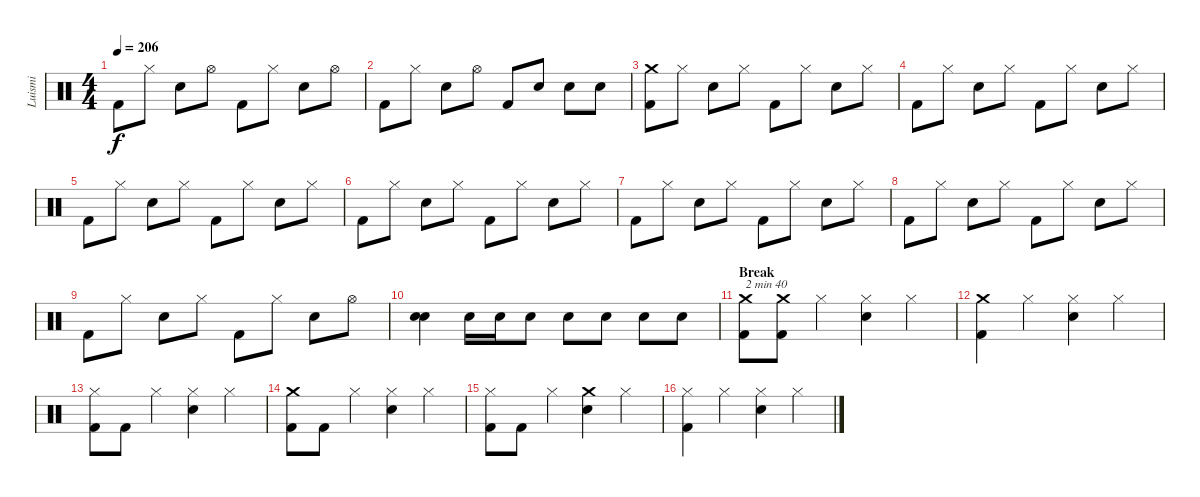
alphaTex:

\track ("Luismi" "Luismi") {instrument percussion}
\staff {score}
\articulation defaults
\ts (4 4)
\tempo 206
\clef neutral
\ks c "Kick (hit) 2".8{dy f} "Hi-Hat (closed)".8 "Snare (hit) 2".8 "Hi-Hat (open)".8 "Kick (hit) 2".8 "Hi-Hat (closed)".8 "Snare (hit) 2".8 "Hi-Hat (open)".8
|
"Kick (hit) 2".8 "Hi-Hat (closed)".8 "Snare (hit) 2".8 "Hi-Hat (open)".8 "Kick (hit) 2".8 "Snare (hit) 2".8 "Snare (hit) 2".8 "Snare (hit) 2".8 |
("Crash medium (hit)" "Kick (hit) 2").8 "Hi-Hat (closed)".8 "Snare (hit) 2".8 "Hi-Hat (closed)".8 "Kick (hit) 2".8 "Hi-Hat (closed)".8 "Snare (hit) 2".8 "Hi-Hat (closed)".8 |
"Kick (hit) 2".8 "Hi-Hat (closed)".8 "Snare (hit) 2".8 "Hi-Hat (closed)".8 "Kick (hit) 2".8 "Hi-Hat (closed)".8 "Snare (hit) 2".8 "Hi-Hat (closed)".8 |
"Kick (hit) 2".8 "Hi-Hat (closed)".8 "Snare (hit) 2".8 "Hi-Hat (closed)".8 "Kick (hit) 2".8 "Hi-Hat (closed)".8 "Snare (hit) 2".8 "Hi-Hat (closed)".8 |
"Kick (hit) 2".8 "Hi-Hat (closed)".8 "Snare (hit) 2".8 "Hi-Hat (closed)".8 "Kick (hit) 2".8 "Hi-Hat (closed)".8 "Snare (hit) 2".8 "Hi-Hat (closed)".8 |
"Kick (hit) 2".8 "Hi-Hat (closed)".8 "Snare (hit) 2".8 "Hi-Hat (closed)".8 "Kick (hit) 2".8 "Hi-Hat (closed)".8 "Snare (hit) 2".8 "Hi-Hat (closed)".8 |
"Kick (hit) 2".8 "Hi-Hat (closed)".8 "Snare (hit) 2".8 "Hi-Hat (closed)".8 "Kick (hit) 2".8 "Hi-Hat (closed)".8 "Snare (hit) 2".8 "Hi-Hat (closed)".8 |
"Kick (hit) 2".8 "Hi-Hat (closed)".8 "Snare (hit) 2".8 "Hi-Hat (closed)".8 "Kick (hit) 2".8 "Hi-Hat (closed)".8 "Snare (hit) 2".8 "Hi-Hat (open)".8 |
("Snare (hit) 2" "Snare (hit) 2").4 "Snare (hit) 2".16 "Snare (hit) 2".16 "Snare (hit) 2".8 "Snare (hit) 2".8 "Snare (hit) 2".8 "Snare (hit) 2".8 "Snare (hit) 2".8 |
\section ("" "Break")
("Crash medium (hit)" "Kick (hit) 2").8{txt "2 min 40"} ("Crash medium (hit)" "Kick (hit) 2").8 "Hi-Hat (closed)".4 ("Hi-Hat (closed)" "Snare (hit) 2").4 "Hi-Hat (closed)".4 |
("Crash medium (hit)" "Kick (hit) 2").4 "Hi-Hat (closed)".4 ("Hi-Hat (closed)" "Snare (hit) 2").4 "Hi-Hat (closed)".4 |
("Hi-Hat (closed)" "Kick (hit) 2").8 "Kick (hit) 2".8 "Hi-Hat (closed)".4 ("Hi-Hat (closed)" "Snare (hit) 2").4 "Hi-Hat (closed)".4 |
("Crash medium (hit)" "Kick (hit) 2").8 "Kick (hit) 2".8 "Hi-Hat (closed)".4 ("Hi-Hat (closed)" "Snare (hit) 2").4 "Hi-Hat (closed)".4 |
("Hi-Hat (closed)" "Kick (hit) 2").8 "Kick (hit) 2".8 "Hi-Hat (closed)".4 ("Crash medium (hit)" "Snare (hit) 2").4 "Hi-Hat (closed)".4 |
("Hi-Hat (closed)" "Kick (hit) 2").4 "Hi-Hat (closed)".4 ("Hi-Hat (closed)" "Snare (hit) 2").4 "Hi-Hat (closed)".4
